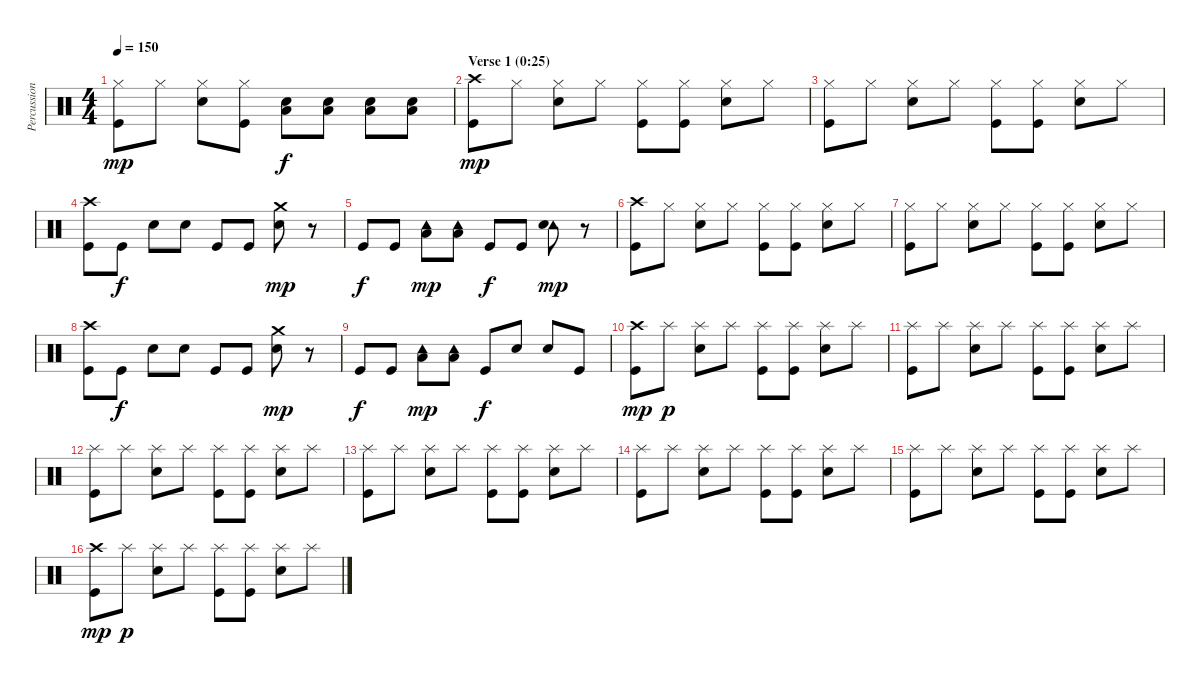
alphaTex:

\track ("Percussion" "Percussion") {instrument percussion}
\staff {score}
\articulation defaults
\ts (4 4)
\tempo 150
\clef neutral
\ks c
("Hi-Hat (closed)" "Kick (hit)").8{dy mp} "Hi-Hat (closed)".8 ("Hi-Hat (closed)" "Electric Snare (hit)").8 ("Hi-Hat (closed)" "Kick (hit)").8 ("Low Tom (hit)" "Electric Snare (hit)").8{dy f} ("Low Tom (hit)" "Electric Snare (hit)").8 ("Low Tom (hit)" "Electric Snare (hit)").8 ("Low Tom (hit)" "Electric Snare (hit)").8 |
\section ("" "Verse 1 (0:25)")
("Crash high (hit)" "Kick (hit)").8{dy mp} "Hi-Hat (closed)".8 ("Hi-Hat (closed)" "Electric Snare (hit)").8 "Hi-Hat (closed)".8 ("Hi-Hat (closed)" "Kick (hit)").8 ("Hi-Hat (closed)" "Kick (hit)").8 ("Hi-Hat (closed)" "Electric Snare (hit)").8 "Hi-Hat (closed)".8 |
("Hi-Hat (closed)" "Kick (hit)").8 "Hi-Hat (closed)".8 ("Hi-Hat (closed)" "Electric Snare (hit)").8 "Hi-Hat (closed)".8 ("Hi-Hat (closed)" "Kick (hit)").8 ("Hi-Hat (closed)" "Kick (hit)").8 ("Hi-Hat (closed)" "Electric Snare (hit)").8 "Hi-Hat (closed)".8 |
("Crash high (hit)" "Kick (hit)").8 "Kick (hit)".8{dy f} "Electric Snare (hit)".8 "Electric Snare (hit)".8 "Kick (hit)".8 "Kick (hit)".8 ("Crash medium (hit)" "Electric Snare (hit)").8{dy mp} r.8 |
"Kick (hit)".8{dy f} "Kick (hit)".8 ("Tambourine (hit)" "Low Tom (hit)").8{dy mp} ("Tambourine (hit)" "Low Tom (hit)").8 "Kick (hit)".8{dy f} "Kick (hit)".8 ("Tambourine (hit)" "Electric Snare (hit)").8{dy mp} r.8 |
("Crash high (hit)" "Kick (hit)").8 "Hi-Hat (closed)".8 ("Hi-Hat (closed)" "Electric Snare (hit)").8 "Hi-Hat (closed)".8 ("Hi-Hat (closed)" "Kick (hit)").8 ("Hi-Hat (closed)" "Kick (hit)").8 ("Hi-Hat (closed)" "Electric Snare (hit)").8 "Hi-Hat (closed)".8 |
("Hi-Hat (closed)" "Kick (hit)").8 "Hi-Hat (closed)".8 ("Hi-Hat (closed)" "Electric Snare (hit)").8 "Hi-Hat (closed)".8 ("Hi-Hat (closed)" "Kick (hit)").8 ("Hi-Hat (closed)" "Kick (hit)").8 ("Hi-Hat (closed)" "Electric Snare (hit)").8 "Hi-Hat (closed)".8 |
("Crash high (hit)" "Kick (hit)").8 "Kick (hit)".8{dy f} "Electric Snare (hit)".8 "Electric Snare (hit)".8 "Kick (hit)".8 "Kick (hit)".8 ("Crash medium (hit)" "Electric Snare (hit)").8{dy mp} r.8 |
"Kick (hit)".8{dy f} "Kick (hit)".8 ("Tambourine (hit)" "Low Tom (hit)").8{dy mp} ("Tambourine (hit)" "Low Tom (hit)").8 "Kick (hit)".8{dy f} "Electric Snare (hit)".8 "Electric Snare (hit)".8 "Kick (hit)".8 |
("Crash high (hit)" "Kick (hit)").8{dy mp} "Splash (hit)".8{dy p} ("Splash (hit)" "Electric Snare (hit)").8 "Splash (hit)".8 ("Splash (hit)" "Kick (hit)").8 ("Splash (hit)" "Kick (hit)").8 ("Splash (hit)" "Electric Snare (hit)").8 "Splash (hit)".8 |
("Splash (hit)" "Kick (hit)").8 "Splash (hit)".8 ("Splash (hit)" "Electric Snare (hit)").8 "Splash (hit)".8 ("Splash (hit)" "Kick (hit)").8 ("Splash (hit)" "Kick (hit)").8 ("Splash (hit)" "Electric Snare (hit)").8 "Splash (hit)".8 |
("Splash (hit)" "Kick (hit)").8 "Splash (hit)".8 ("Splash (hit)" "Electric Snare (hit)").8 "Splash (hit)".8 ("Splash (hit)" "Kick (hit)").8 ("Splash (hit)" "Kick (hit)").8 ("Splash (hit)" "Electric Snare (hit)").8 "Splash (hit)".8 |
("Splash (hit)" "Kick (hit)").8 "Splash (hit)".8 ("Splash (hit)" "Electric Snare (hit)").8 "Splash (hit)".8 ("Splash (hit)" "Kick (hit)").8 ("Splash (hit)" "Kick (hit)").8 ("Splash (hit)" "Electric Snare (hit)").8 "Splash (hit)".8 |
("Splash (hit)" "Kick (hit)").8 "Splash (hit)".8 ("Splash (hit)" "Electric Snare (hit)").8 "Splash (hit)".8 ("Splash (hit)" "Kick (hit)").8 ("Splash (hit)" "Kick (hit)").8 ("Splash (hit)" "Electric Snare (hit)").8 "Splash (hit)".8 |
("Splash (hit)" "Kick (hit)").8 "Splash (hit)".8 ("Splash (hit)" "Electric Snare (hit)").8 "Splash (hit)".8 ("Splash (hit)" "Kick (hit)").8 ("Splash (hit)" "Kick (hit)").8 ("Splash (hit)" "Electric Snare (hit)").8 "Splash (hit)".8 |
("Crash high (hit)" "Kick (hit)").8{dy mp} "Splash (hit)".8{dy p} ("Splash (hit)" "Electric Snare (hit)").8 "Splash (hit)".8 ("Splash (hit)" "Kick (hit)").8 ("Splash (hit)" "Kick (hit)").8 ("Splash (hit)" "Electric Snare (hit)").8 "Splash (hit)".8
